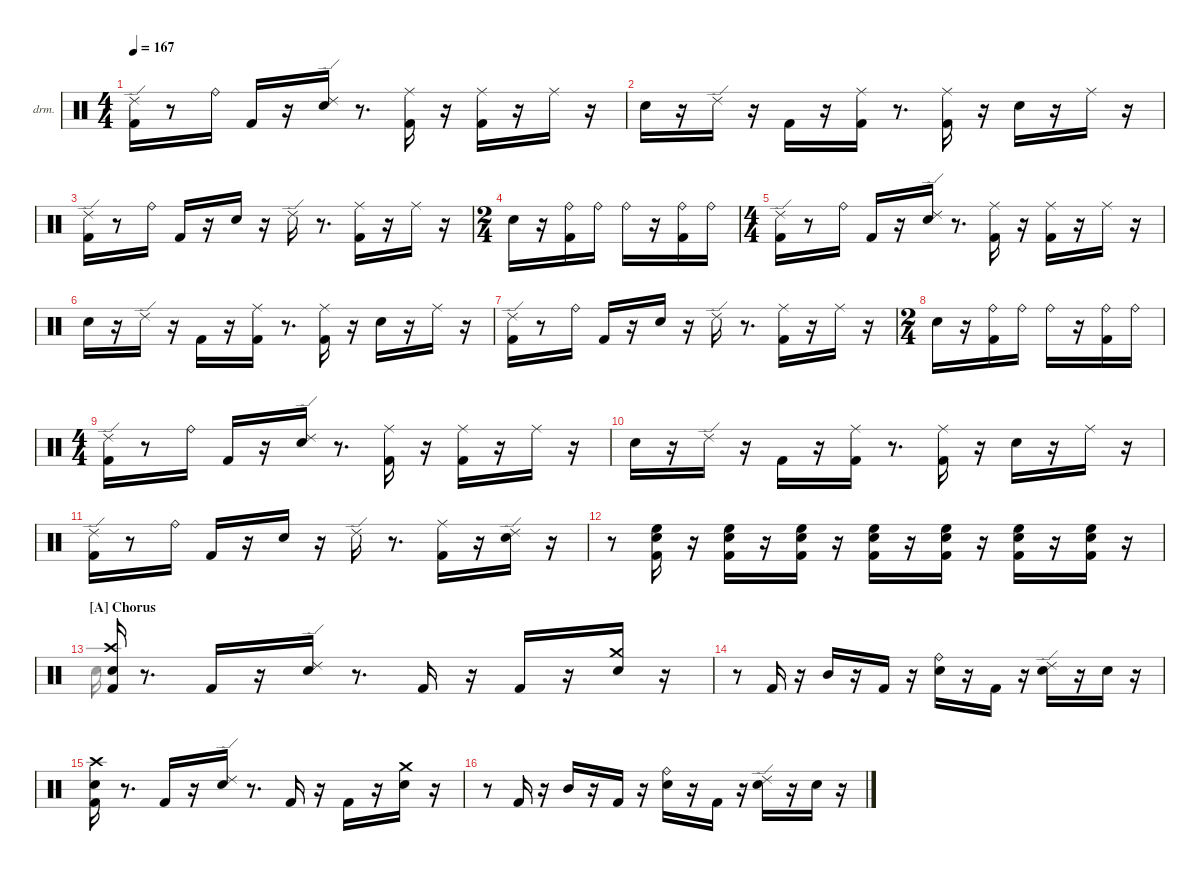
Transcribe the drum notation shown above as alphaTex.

\hideDynamics
\bracketExtendMode nobrackets
\firstSystemTrackNameOrientation horizontal
\otherSystemsTrackNameOrientation horizontal
\track ("Drums" "drm.") {instrument percussion}
\staff {score}
\articulation defaults
\voice
\ts (4 4)
\tempo 167
\clef neutral
\ks aminor
("Kick (hit) 2" "Ride (edge) 2").16{dy ff} r.8 "Ride (bell)".16{dy mf} "Kick (hit) 2".16{dy ff} r.16 ("Snare (hit) 2" "Ride (edge) 2").16 r.8{d} ("Kick (hit) 2" "Ride (middle)"{acc #}).16{dy mf} r.16 ("Kick (hit) 2" "Ride (middle)"{acc #}).16{dy ff} r.16 "Ride (middle)"{acc #}.16{dy mp} r.16 |
"Snare (hit) 2".16{dy ff} r.16 "Ride (edge) 2".16{dy f} r.16 "Kick (hit) 2".16{dy mf} r.16 ("Kick (hit) 2" "Ride (middle)"{acc #}).16{dy ff} r.8{d} ("Kick (hit) 2" "Ride (middle)"{acc #}).16 r.16 "Snare (hit) 2".16 r.16 "Ride (middle)"{acc #}.16 r.16 |
("Kick (hit) 2" "Ride (edge) 2").16 r.8 "Ride (bell)".16{dy mf} "Kick (hit) 2".16{dy ff} r.16 "Snare (hit) 2".16 r.16 "Ride (edge) 2".16 r.8{d} ("Kick (hit) 2" "Ride (middle)"{acc #}).16 r.16 "Ride (middle)"{acc #}.16{dy mp} r.16 |
\ts (2 4)
"Snare (hit) 2".16{dy ff} r.16 ("Kick (hit) 2" "Ride (bell)").16{dy f} "Ride (bell)".16{dy mp} "Ride (bell)".16{dy mf} r.16 ("Kick (hit) 2" "Ride (bell)").16{dy f} "Ride (bell)".16{dy mp} |
\ts (4 4)
("Kick (hit) 2" "Ride (edge) 2").16{dy ff} r.8 "Ride (bell)".16{dy mf} "Kick (hit) 2".16{dy ff} r.16 ("Snare (hit) 2" "Ride (edge) 2").16 r.8{d} ("Kick (hit) 2" "Ride (middle)"{acc #}).16{dy mf} r.16 ("Kick (hit) 2" "Ride (middle)"{acc #}).16{dy ff} r.16 "Ride (middle)"{acc #}.16{dy mp} r.16 |
"Snare (hit) 2".16{dy ff} r.16 "Ride (edge) 2".16{dy f} r.16 "Kick (hit) 2".16{dy mf} r.16 ("Kick (hit) 2" "Ride (middle)"{acc #}).16{dy ff} r.8{d} ("Kick (hit) 2" "Ride (middle)"{acc #}).16 r.16 "Snare (hit) 2".16 r.16 "Ride (middle)"{acc #}.16 r.16 |
("Kick (hit) 2" "Ride (edge) 2").16 r.8 "Ride (bell)".16{dy mf} "Kick (hit) 2".16{dy ff} r.16 "Snare (hit) 2".16 r.16 "Ride (edge) 2".16 r.8{d} ("Kick (hit) 2" "Ride (middle)"{acc #}).16 r.16 "Ride (middle)"{acc #}.16{dy mp} r.16 |
\ts (2 4)
"Snare (hit) 2".16{dy ff} r.16 ("Kick (hit) 2" "Ride (bell)").16{dy f} "Ride (bell)".16{dy mp} "Ride (bell)".16{dy mf} r.16 ("Kick (hit) 2" "Ride (bell)").16{dy f} "Ride (bell)".16{dy mp} |
\ts (4 4)
("Kick (hit) 2" "Ride (edge) 2").16{dy ff} r.8 "Ride (bell)".16{dy mf} "Kick (hit) 2".16{dy ff} r.16 ("Snare (hit) 2" "Ride (edge) 2").16 r.8{d} ("Kick (hit) 2" "Ride (middle)"{acc #}).16{dy mf} r.16 ("Kick (hit) 2" "Ride (middle)"{acc #}).16{dy ff} r.16 "Ride (middle)"{acc #}.16{dy mp} r.16 |
"Snare (hit) 2".16{dy ff} r.16 "Ride (edge) 2".16{dy f} r.16 "Kick (hit) 2".16{dy mf} r.16 ("Kick (hit) 2" "Ride (middle)"{acc #}).16{dy ff} r.8{d} ("Kick (hit) 2" "Ride (middle)"{acc #}).16 r.16 "Snare (hit) 2".16 r.16 "Ride (middle)"{acc #}.16 r.16 |
("Kick (hit) 2" "Ride (edge) 2").16 r.8 "Ride (bell)".16{dy mf} "Kick (hit) 2".16{dy ff} r.16 "Snare (hit) 2".16 r.16 "Ride (edge) 2".16 r.8{d} ("Kick (hit) 2" "Ride (middle)"{acc #}).16 r.16 ("Snare (hit) 2" "Ride (edge) 2").16 r.16 |
r.8 ("Kick (hit) 2" "Snare (hit) 2" "High Floor Tom (hit)").16 r.16 ("Kick (hit) 2" "Snare (hit) 2" "High Floor Tom (hit)").16 r.16 ("Kick (hit) 2" "Snare (hit) 2" "High Floor Tom (hit)").16 r.16 ("Kick (hit) 2" "Snare (hit) 2" "High Floor Tom (hit)").16 r.16 ("Kick (hit) 2" "Snare (hit) 2" "High Floor Tom (hit)").16 r.16 ("Kick (hit) 2" "Snare (hit) 2" "High Floor Tom (hit)").16 r.16 ("Kick (hit) 2" "Snare (hit) 2" "High Floor Tom (hit)").16 r.16 |
\section ("A" "Chorus")
("Kick (hit) 2" "Snare (hit) 2" "Crash high (hit)"{acc #}).16 r.8{d} "Kick (hit) 2".16 r.16 ("Ride (edge) 2" "Snare (hit) 2").16 r.8{d} "Kick (hit) 2".16{dy mf} r.16 "Kick (hit) 2".16{dy ff} r.16 ("Snare (hit) 2" "Crash medium (hit)").16 r.16 |
r.8 "Kick (hit) 2".16 r.16 "Mid Tom (hit)".16 r.16 "Kick (hit) 2".16 r.16 ("Snare (hit) 2" "Ride (bell)").16{dy f} r.16 "Kick (hit) 2".16{dy ff} r.16 ("Ride (edge) 2" "Snare (hit) 2").16 r.16 "Snare (hit) 2".16{dy mf} r.16 |
("Kick (hit) 2" "Snare (hit) 2" "Crash high (hit)"{acc #}).16{dy ff} r.8{d} "Kick (hit) 2".16 r.16 ("Snare (hit) 2" "Ride (edge) 2").16 r.8{d} "Kick (hit) 2".16{dy mf} r.16 "Kick (hit) 2".16{dy ff} r.16 ("Snare (hit) 2" "Crash medium (hit)").16 r.16 |
r.8 "Kick (hit) 2".16 r.16 "Mid Tom (hit)".16 r.16 "Kick (hit) 2".16 r.16 ("Snare (hit) 2" "Ride (bell)").16{dy f} r.16 "Kick (hit) 2".16{dy ff} r.16 ("Snare (hit) 2" "Ride (edge) 2").16{dy f} r.16 "Snare (hit) 2".16{dy mf} r.16
\voice
\clef neutral
\ottava regular
\simile none
\ks aminor
|
|
|
|
|
|
|
|
|
|
|
|
"Snare (hit) 2".16 |
|
|
